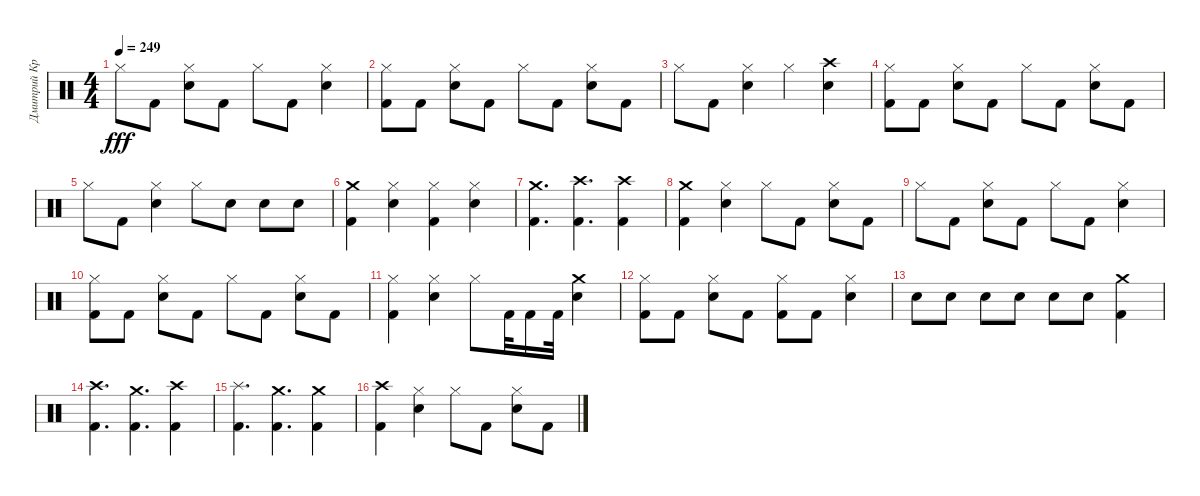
\track ("Дмитрий Кривенков" "Дмитрий Кр") {instrument percussion}
\staff {score}
\articulation defaults
\ts (4 4)
\tempo 249
\clef neutral
\ks c "Hi-Hat (closed)".8{dy fff} "Kick (hit) 2".8
("Hi-Hat (closed)" "Electric Snare (hit)").8 "Kick (hit) 2".8 "Hi-Hat (closed)".8 "Kick (hit) 2".8 ("Hi-Hat (closed)" "Electric Snare (hit)").4 |
("Kick (hit) 2" "Hi-Hat (closed)").8 "Kick (hit) 2".8 ("Hi-Hat (closed)" "Electric Snare (hit)").8 "Kick (hit) 2".8 "Hi-Hat (closed)".8 "Kick (hit) 2".8 ("Hi-Hat (closed)" "Electric Snare (hit)").8 "Kick (hit) 2".8 |
"Hi-Hat (closed)".8 "Kick (hit) 2".8 ("Hi-Hat (closed)" "Electric Snare (hit)").4 "Hi-Hat (closed)".4 ("Crash high (hit)" "Electric Snare (hit)").4 |
("Kick (hit) 2" "Hi-Hat (closed)").8 "Kick (hit) 2".8 ("Hi-Hat (closed)" "Electric Snare (hit)").8 "Kick (hit) 2".8 "Hi-Hat (closed)".8 "Kick (hit) 2".8 ("Hi-Hat (closed)" "Electric Snare (hit)").8 "Kick (hit) 2".8 |
"Hi-Hat (closed)".8 "Kick (hit) 2".8 ("Hi-Hat (closed)" "Electric Snare (hit)").4 "Hi-Hat (closed)".8 "Electric Snare (hit)".8 "Electric Snare (hit)".8 "Electric Snare (hit)".8 |
("Kick (hit) 2" "Crash medium (hit)").4 ("Hi-Hat (closed)" "Electric Snare (hit)").4 ("Kick (hit) 2" "Hi-Hat (closed)").4 ("Hi-Hat (closed)" "Electric Snare (hit)").4 |
("Kick (hit) 2" "Crash medium (hit)").4{d} ("Kick (hit) 2" "Crash high (hit)").4{d} ("Kick (hit) 2" "Crash high (hit)").4 |
("Kick (hit) 2" "Crash medium (hit)").4 ("Hi-Hat (closed)" "Electric Snare (hit)").4 "Hi-Hat (closed)".8 "Kick (hit) 2".8 ("Hi-Hat (closed)" "Electric Snare (hit)").8 "Kick (hit) 2".8 |
"Hi-Hat (closed)".8 "Kick (hit) 2".8 ("Hi-Hat (closed)" "Electric Snare (hit)").8 "Kick (hit) 2".8 "Hi-Hat (closed)".8 "Kick (hit) 2".8 ("Hi-Hat (closed)" "Electric Snare (hit)").4 |
("Kick (hit) 2" "Hi-Hat (closed)").8 "Kick (hit) 2".8 ("Hi-Hat (closed)" "Electric Snare (hit)").8 "Kick (hit) 2".8 "Hi-Hat (closed)".8 "Kick (hit) 2".8 ("Hi-Hat (closed)" "Electric Snare (hit)").8 "Kick (hit) 2".8 |
("Kick (hit) 2" "Hi-Hat (closed)").4 ("Hi-Hat (closed)" "Electric Snare (hit)").4 "Hi-Hat (closed)".8 "Kick (hit) 2".32 "Kick (hit) 2".16 "Kick (hit) 2".32 ("Crash medium (hit)" "Electric Snare (hit)").4 |
("Kick (hit) 2" "Hi-Hat (closed)").8 "Kick (hit) 2".8 ("Hi-Hat (closed)" "Electric Snare (hit)").8 "Kick (hit) 2".8 ("Kick (hit) 2" "Hi-Hat (closed)").8 "Kick (hit) 2".8 ("Hi-Hat (closed)" "Electric Snare (hit)").4 |
"Electric Snare (hit)".8 "Electric Snare (hit)".8 "Electric Snare (hit)".8 "Electric Snare (hit)".8 "Electric Snare (hit)".8 "Electric Snare (hit)".8 ("Kick (hit) 2" "Crash medium (hit)").4 |
("Kick (hit) 2" "Crash high (hit)").4{d} ("Kick (hit) 2" "Crash medium (hit)").4{d} ("Kick (hit) 2" "Crash high (hit)").4 |
("Kick (hit) 2" "Splash (hit)").4{d} ("Kick (hit) 2" "Crash medium (hit)").4{d} ("Kick (hit) 2" "Crash medium (hit)").4 |
("Kick (hit) 2" "Crash high (hit)").4 ("Electric Snare (hit)" "Hi-Hat (closed)").4 "Hi-Hat (closed)".8 "Kick (hit) 2".8 ("Electric Snare (hit)" "Hi-Hat (closed)").8 "Kick (hit) 2".8
